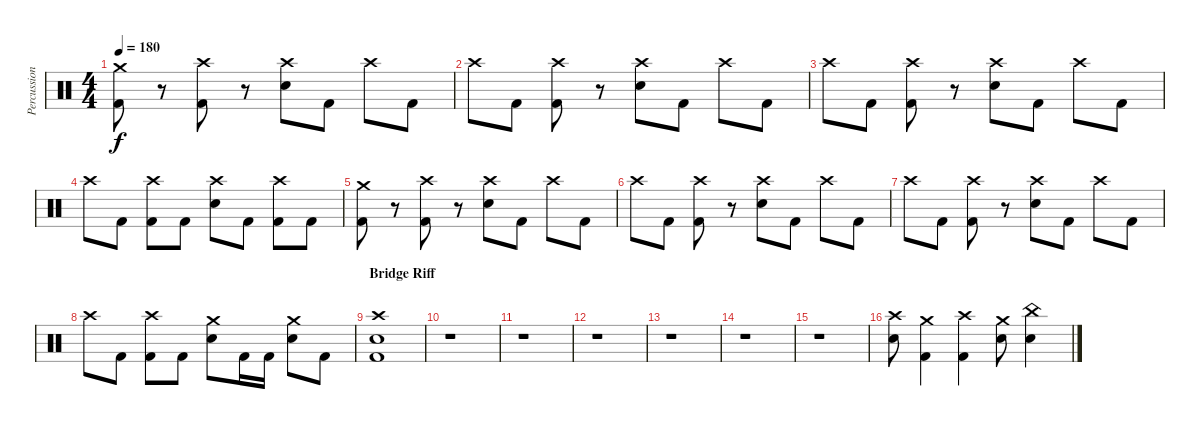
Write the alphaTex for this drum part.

\track ("Percussion" "Percussion") {instrument percussion}
\staff {score}
\articulation defaults
\ts (4 4)
\tempo 180
\clef neutral
\ks c
("Crash medium (hit)" "Kick (hit) 2").8{dy f} r.8 ("Crash high (hit)" "Kick (hit) 2").8 r.8 ("Crash high (hit)" "Electric Snare (hit)").8 "Kick (hit) 2".8 "Crash high (hit)".8 "Kick (hit) 2".8 |
"Crash high (hit)".8 "Kick (hit) 2".8 ("Crash high (hit)" "Kick (hit) 2").8 r.8 ("Crash high (hit)" "Electric Snare (hit)").8 "Kick (hit) 2".8 "Crash high (hit)".8 "Kick (hit) 2".8 |
"Crash high (hit)".8 "Kick (hit) 2".8 ("Crash high (hit)" "Kick (hit) 2").8 r.8 ("Crash high (hit)" "Electric Snare (hit)").8 "Kick (hit) 2".8 "Crash high (hit)".8 "Kick (hit) 2".8 |
"Crash high (hit)".8 "Kick (hit) 2".8 ("Crash high (hit)" "Kick (hit) 2").8 "Kick (hit) 2".8 ("Crash high (hit)" "Electric Snare (hit)").8 "Kick (hit) 2".8 ("Crash high (hit)" "Kick (hit) 2").8 "Kick (hit) 2".8 |
("Crash medium (hit)" "Kick (hit) 2").8 r.8 ("Crash high (hit)" "Kick (hit) 2").8 r.8 ("Crash high (hit)" "Electric Snare (hit)").8 "Kick (hit) 2".8 "Crash high (hit)".8 "Kick (hit) 2".8 |
"Crash high (hit)".8 "Kick (hit) 2".8 ("Crash high (hit)" "Kick (hit) 2").8 r.8 ("Crash high (hit)" "Electric Snare (hit)").8 "Kick (hit) 2".8 "Crash high (hit)".8 "Kick (hit) 2".8 |
"Crash high (hit)".8 "Kick (hit) 2".8 ("Crash high (hit)" "Kick (hit) 2").8 r.8 ("Crash high (hit)" "Electric Snare (hit)").8 "Kick (hit) 2".8 "Crash high (hit)".8 "Kick (hit) 2".8 |
"Crash high (hit)".8 "Kick (hit) 2".8 ("Crash high (hit)" "Kick (hit) 2").8 "Kick (hit) 2".8 ("Crash medium (hit)" "Electric Snare (hit)").8 "Kick (hit) 2".16 "Kick (hit) 2".16 ("Crash medium (hit)" "Electric Snare (hit)").8 "Kick (hit) 2".8 |
\section ("" "Bridge Riff")
("Crash high (hit)" "Electric Snare (hit)" "Kick (hit) 2").1 |
r.1 |
r.1 |
r.1 |
r.1 |
r.1 |
r.1 |
("Crash high (hit)" "Electric Snare (hit)").8 ("Crash medium (hit)" "Kick (hit) 2").4 ("Crash high (hit)" "Kick (hit) 2").4 ("Crash medium (hit)" "Electric Snare (hit)").8 ("China (hit)" "Electric Snare (hit)").4
